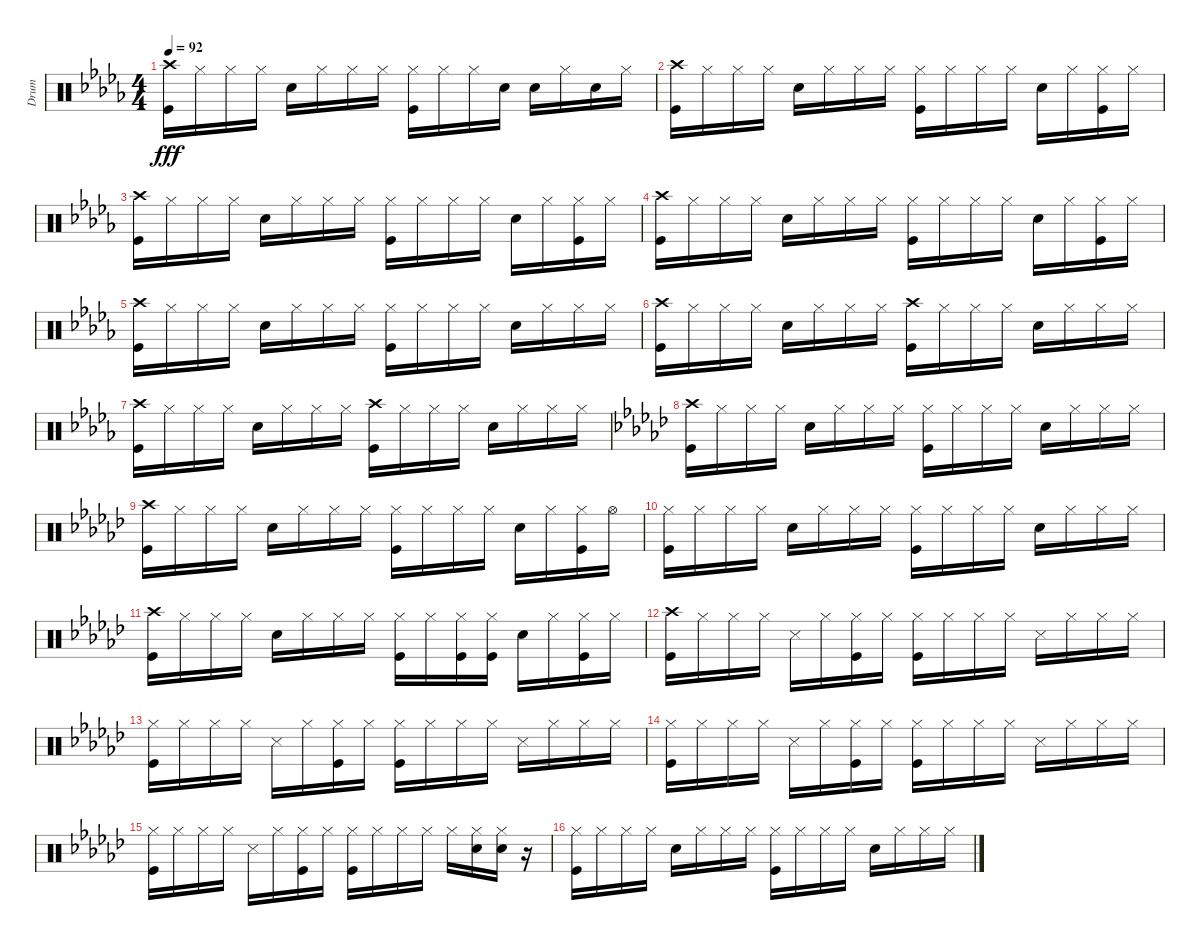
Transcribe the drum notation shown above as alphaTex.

\track ("Drum" "Drum") {instrument percussion}
\staff {score}
\articulation defaults
\ts (4 4)
\tempo 92
\clef neutral
\ks db
("Crash high (hit)" "Kick (hit)").16{dy fff} "Hi-Hat (closed)".16 "Hi-Hat (closed)".16 "Hi-Hat (closed)".16 "Snare (hit) 2".16 "Hi-Hat (closed)".16 "Hi-Hat (closed)".16 "Hi-Hat (closed)".16 ("Hi-Hat (closed)" "Kick (hit)").16 "Hi-Hat (closed)".16 "Hi-Hat (closed)".16 "Snare (hit) 2".16 "Snare (hit) 2".16 "Hi-Hat (closed)".16 "Snare (hit) 2".16 "Hi-Hat (closed)".16 |
("Crash high (hit)" "Kick (hit)").16 "Hi-Hat (closed)".16 "Hi-Hat (closed)".16 "Hi-Hat (closed)".16 "Snare (hit) 2".16 "Hi-Hat (closed)".16 "Hi-Hat (closed)".16 "Hi-Hat (closed)".16 ("Hi-Hat (closed)" "Kick (hit)").16 "Hi-Hat (closed)".16 "Hi-Hat (closed)".16 "Hi-Hat (closed)".16 "Snare (hit) 2".16 "Hi-Hat (closed)".16 ("Hi-Hat (closed)" "Kick (hit)").16 "Hi-Hat (closed)".16 |
("Crash high (hit)" "Kick (hit)").16 "Hi-Hat (closed)".16 "Hi-Hat (closed)".16 "Hi-Hat (closed)".16 "Snare (hit) 2".16 "Hi-Hat (closed)".16 "Hi-Hat (closed)".16 "Hi-Hat (closed)".16 ("Hi-Hat (closed)" "Kick (hit)").16 "Hi-Hat (closed)".16 "Hi-Hat (closed)".16 "Hi-Hat (closed)".16 "Snare (hit) 2".16 "Hi-Hat (closed)".16 ("Hi-Hat (closed)" "Kick (hit)").16 "Hi-Hat (closed)".16 |
("Crash high (hit)" "Kick (hit)").16 "Hi-Hat (closed)".16 "Hi-Hat (closed)".16 "Hi-Hat (closed)".16 "Snare (hit) 2".16 "Hi-Hat (closed)".16 "Hi-Hat (closed)".16 "Hi-Hat (closed)".16 ("Hi-Hat (closed)" "Kick (hit)").16 "Hi-Hat (closed)".16 "Hi-Hat (closed)".16 "Hi-Hat (closed)".16 "Snare (hit) 2".16 "Hi-Hat (closed)".16 ("Hi-Hat (closed)" "Kick (hit)").16 "Hi-Hat (closed)".16 |
("Crash high (hit)" "Kick (hit)").16 "Hi-Hat (closed)".16 "Hi-Hat (closed)".16 "Hi-Hat (closed)".16 "Snare (hit) 2".16 "Hi-Hat (closed)".16 "Hi-Hat (closed)".16 "Hi-Hat (closed)".16 ("Hi-Hat (closed)" "Kick (hit)").16 "Hi-Hat (closed)".16 "Hi-Hat (closed)".16 "Hi-Hat (closed)".16 "Snare (hit) 2".16 "Hi-Hat (closed)".16 "Hi-Hat (closed)".16 "Hi-Hat (closed)".16 |
("Crash high (hit)" "Kick (hit)").16 "Hi-Hat (closed)".16 "Hi-Hat (closed)".16 "Hi-Hat (closed)".16 "Snare (hit) 2".16 "Hi-Hat (closed)".16 "Hi-Hat (closed)".16 "Hi-Hat (closed)".16 ("Crash high (hit)" "Kick (hit)").16 "Hi-Hat (closed)".16 "Hi-Hat (closed)".16 "Hi-Hat (closed)".16 "Snare (hit) 2".16 "Hi-Hat (closed)".16 "Hi-Hat (closed)".16 "Hi-Hat (closed)".16 |
("Crash high (hit)" "Kick (hit)").16 "Hi-Hat (closed)".16 "Hi-Hat (closed)".16 "Hi-Hat (closed)".16 "Snare (hit) 2".16 "Hi-Hat (closed)".16 "Hi-Hat (closed)".16 "Hi-Hat (closed)".16 ("Crash high (hit)" "Kick (hit)").16 "Hi-Hat (closed)".16 "Hi-Hat (closed)".16 "Hi-Hat (closed)".16 "Snare (hit) 2".16 "Hi-Hat (closed)".16 "Hi-Hat (closed)".16 "Hi-Hat (closed)".16 |
\ks gb
("Crash high (hit)" "Kick (hit)").16 "Hi-Hat (closed)".16 "Hi-Hat (closed)".16 "Hi-Hat (closed)".16 "Snare (hit) 2".16 "Hi-Hat (closed)".16 "Hi-Hat (closed)".16 "Hi-Hat (closed)".16 ("Hi-Hat (closed)" "Kick (hit)").16 "Hi-Hat (closed)".16 "Hi-Hat (closed)".16 "Hi-Hat (closed)".16 "Snare (hit) 2".16 "Hi-Hat (closed)".16 "Hi-Hat (closed)".16 "Hi-Hat (closed)".16 |
("Crash high (hit)" "Kick (hit)").16 "Hi-Hat (closed)".16 "Hi-Hat (closed)".16 "Hi-Hat (closed)".16 "Snare (hit) 2".16 "Hi-Hat (closed)".16 "Hi-Hat (closed)".16 "Hi-Hat (closed)".16 ("Hi-Hat (closed)" "Kick (hit)").16 "Hi-Hat (closed)".16 "Hi-Hat (closed)".16 "Hi-Hat (closed)".16 "Snare (hit) 2".16 "Hi-Hat (closed)".16 ("Hi-Hat (closed)" "Kick (hit)").16 "Hi-Hat (open)".16 |
("Hi-Hat (closed)" "Kick (hit)").16 "Hi-Hat (closed)".16 "Hi-Hat (closed)".16 "Hi-Hat (closed)".16 "Snare (hit) 2".16 "Hi-Hat (closed)".16 "Hi-Hat (closed)".16 "Hi-Hat (closed)".16 ("Hi-Hat (closed)" "Kick (hit)").16 "Hi-Hat (closed)".16 "Hi-Hat (closed)".16 "Hi-Hat (closed)".16 "Snare (hit) 2".16 "Hi-Hat (closed)".16 "Hi-Hat (closed)".16 "Hi-Hat (closed)".16 |
("Crash high (hit)" "Kick (hit)").16 "Hi-Hat (closed)".16 "Hi-Hat (closed)".16 "Hi-Hat (closed)".16 "Snare (hit) 2".16 "Hi-Hat (closed)".16 "Hi-Hat (closed)".16 "Hi-Hat (closed)".16 ("Hi-Hat (closed)" "Kick (hit)").16 "Hi-Hat (closed)".16 ("Hi-Hat (closed)" "Kick (hit)").16 ("Hi-Hat (closed)" "Kick (hit)").16 "Snare (hit) 2".16 "Hi-Hat (closed)".16 ("Hi-Hat (closed)" "Kick (hit)").16 "Hi-Hat (closed)".16 |
("Crash high (hit)" "Kick (hit)").16 "Hi-Hat (closed)".16 "Hi-Hat (closed)".16 "Hi-Hat (closed)".16 "Snare (side stick) 3".16 "Hi-Hat (closed)".16 ("Hi-Hat (closed)" "Kick (hit)").16 "Hi-Hat (closed)".16 ("Hi-Hat (closed)" "Kick (hit)").16 "Hi-Hat (closed)".16 "Hi-Hat (closed)".16 "Hi-Hat (closed)".16 "Snare (side stick) 3".16 "Hi-Hat (closed)".16 "Hi-Hat (closed)".16 "Hi-Hat (closed)".16 |
("Hi-Hat (closed)" "Kick (hit)").16 "Hi-Hat (closed)".16 "Hi-Hat (closed)".16 "Hi-Hat (closed)".16 "Snare (side stick) 3".16 "Hi-Hat (closed)".16 ("Hi-Hat (closed)" "Kick (hit)").16 "Hi-Hat (closed)".16 ("Hi-Hat (closed)" "Kick (hit)").16 "Hi-Hat (closed)".16 "Hi-Hat (closed)".16 "Hi-Hat (closed)".16 "Snare (side stick) 3".16 "Hi-Hat (closed)".16 "Hi-Hat (closed)".16 "Hi-Hat (closed)".16 |
("Hi-Hat (closed)" "Kick (hit)").16 "Hi-Hat (closed)".16 "Hi-Hat (closed)".16 "Hi-Hat (closed)".16 "Snare (side stick) 3".16 "Hi-Hat (closed)".16 ("Hi-Hat (closed)" "Kick (hit)").16 "Hi-Hat (closed)".16 ("Hi-Hat (closed)" "Kick (hit)").16 "Hi-Hat (closed)".16 "Hi-Hat (closed)".16 "Hi-Hat (closed)".16 "Snare (side stick) 3".16 "Hi-Hat (closed)".16 "Hi-Hat (closed)".16 "Hi-Hat (closed)".16 |
("Hi-Hat (closed)" "Kick (hit)").16 "Hi-Hat (closed)".16 "Hi-Hat (closed)".16 "Hi-Hat (closed)".16 "Snare (side stick) 3".16 "Hi-Hat (closed)".16 ("Hi-Hat (closed)" "Kick (hit)").16 "Hi-Hat (closed)".16 ("Hi-Hat (closed)" "Kick (hit)").16 "Hi-Hat (closed)".16 "Hi-Hat (closed)".16 "Hi-Hat (closed)".16 "Hi-Hat (closed)".16 ("Hi-Hat (closed)" "Snare (hit) 2").16 ("Hi-Hat (closed)" "Snare (hit) 2").16 r.16 |
("Hi-Hat (closed)" "Kick (hit)").16 "Hi-Hat (closed)".16 "Hi-Hat (closed)".16 "Hi-Hat (closed)".16 "Snare (hit) 2".16 "Hi-Hat (closed)".16 "Hi-Hat (closed)".16 "Hi-Hat (closed)".16 ("Hi-Hat (closed)" "Kick (hit)").16 "Hi-Hat (closed)".16 "Hi-Hat (closed)".16 "Hi-Hat (closed)".16 "Snare (hit) 2".16 "Hi-Hat (closed)".16 "Hi-Hat (closed)".16 "Hi-Hat (closed)".16
